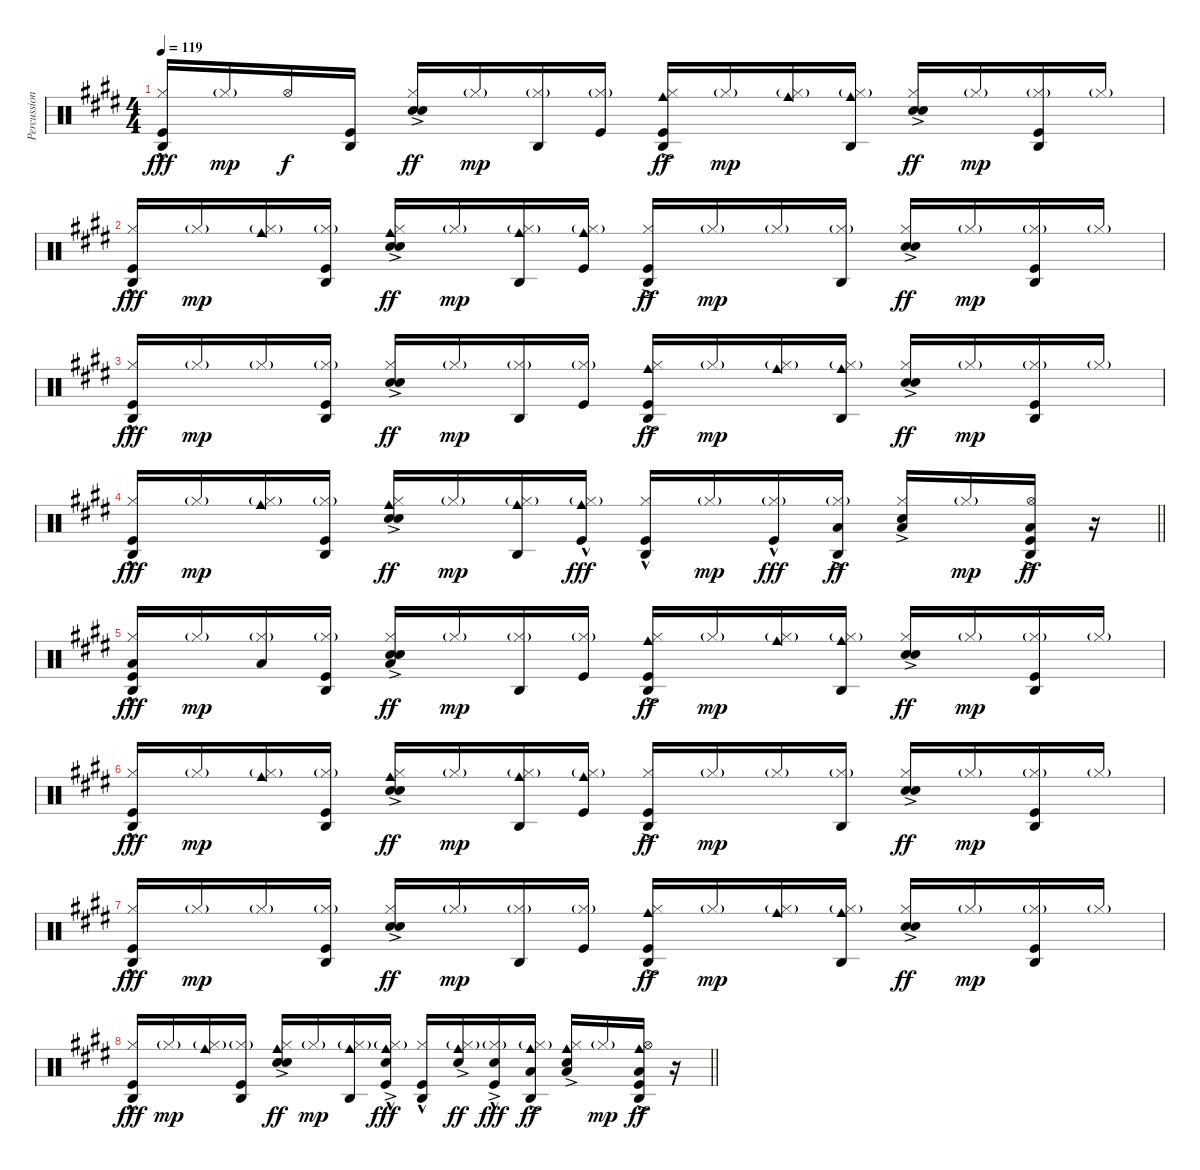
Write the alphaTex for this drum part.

\track ("Percussion" "Percussion") {instrument percussion}
\staff {score}
\articulation defaults
\ts (4 4)
\tempo 119
\clef neutral
\ks e
("Agogo high (hit)" "Hi-Hat (closed)" "Kick (hit)"{hac}).16{dy fff} "Hi-Hat (closed)"{g}.16{dy mp} "Hi-Hat (open)".16{dy f} ("Agogo high (hit)" "Kick (hit)").16 ("Hi-Hat (closed)" "Hand Clap (hit)"{ac} "Snare (hit) 2"{ac}).16{dy ff} "Hi-Hat (closed)"{g}.16{dy mp} ("Agogo high (hit)" "Hi-Hat (closed)"{g}).16 ("Hi-Hat (closed)"{g} "Kick (hit)").16 ("Agogo high (hit)" "Cowbell medium (hit)" "Hi-Hat (closed)" "Kick (hit)"{ac}).16{dy ff} "Hi-Hat (closed)"{g}.16{dy mp} ("Cowbell medium (hit)" "Hi-Hat (closed)"{g}).16 ("Agogo high (hit)" "Cowbell medium (hit)" "Hi-Hat (closed)"{g}).16 ("Hi-Hat (closed)" "Hand Clap (hit)"{ac} "Snare (hit) 2"{ac}).16{dy ff} "Hi-Hat (closed)"{g}.16{dy mp} ("Agogo high (hit)" "Hi-Hat (closed)"{g} "Kick (hit)").16 "Hi-Hat (closed)"{g}.16 |
("Agogo high (hit)" "Hi-Hat (closed)" "Kick (hit)"{hac}).16{dy fff} "Hi-Hat (closed)"{g}.16{dy mp} ("Cowbell medium (hit)" "Hi-Hat (closed)"{g}).16 ("Agogo high (hit)" "Hi-Hat (closed)"{g} "Kick (hit)").16 ("Cowbell medium (hit)" "Hi-Hat (closed)" "Hand Clap (hit)"{ac} "Snare (hit) 2"{ac}).16{dy ff} "Hi-Hat (closed)"{g}.16{dy mp} ("Agogo high (hit)" "Cowbell medium (hit)" "Hi-Hat (closed)"{g}).16 ("Cowbell medium (hit)" "Hi-Hat (closed)"{g} "Kick (hit)").16 ("Agogo high (hit)" "Hi-Hat (closed)" "Kick (hit)"{ac}).16{dy ff} "Hi-Hat (closed)"{g}.16{dy mp} "Hi-Hat (closed)"{g}.16 ("Agogo high (hit)" "Hi-Hat (closed)"{g}).16 ("Hi-Hat (closed)" "Hand Clap (hit)"{ac} "Snare (hit) 2"{ac}).16{dy ff} "Hi-Hat (closed)"{g}.16{dy mp} ("Agogo high (hit)" "Hi-Hat (closed)"{g} "Kick (hit)").16 "Hi-Hat (closed)"{g}.16 |
("Agogo high (hit)" "Hi-Hat (closed)" "Kick (hit)"{hac}).16{dy fff} "Hi-Hat (closed)"{g}.16{dy mp} "Hi-Hat (closed)"{g}.16 ("Agogo high (hit)" "Hi-Hat (closed)"{g} "Kick (hit)").16 ("Hi-Hat (closed)" "Hand Clap (hit)"{ac} "Snare (hit) 2"{ac}).16{dy ff} "Hi-Hat (closed)"{g}.16{dy mp} ("Agogo high (hit)" "Hi-Hat (closed)"{g}).16 ("Hi-Hat (closed)"{g} "Kick (hit)").16 ("Agogo high (hit)" "Cowbell medium (hit)" "Hi-Hat (closed)" "Kick (hit)"{ac}).16{dy ff} "Hi-Hat (closed)"{g}.16{dy mp} ("Cowbell medium (hit)" "Hi-Hat (closed)"{g}).16 ("Agogo high (hit)" "Cowbell medium (hit)" "Hi-Hat (closed)"{g}).16 ("Hi-Hat (closed)" "Hand Clap (hit)"{ac} "Snare (hit) 2"{ac}).16{dy ff} "Hi-Hat (closed)"{g}.16{dy mp} ("Agogo high (hit)" "Hi-Hat (closed)"{g} "Kick (hit)").16 "Hi-Hat (closed)"{g}.16 |
\barLineRight lightlight
("Agogo high (hit)" "Hi-Hat (closed)" "Kick (hit)"{hac}).16{dy fff} "Hi-Hat (closed)"{g}.16{dy mp} ("Cowbell medium (hit)" "Hi-Hat (closed)"{g}).16 ("Agogo high (hit)" "Hi-Hat (closed)"{g} "Kick (hit)").16 ("Cowbell medium (hit)" "Hi-Hat (closed)" "Hand Clap (hit)"{ac} "Snare (hit) 2"{ac}).16{dy ff} "Hi-Hat (closed)"{g}.16{dy mp} ("Agogo high (hit)" "Cowbell medium (hit)" "Hi-Hat (closed)"{g}).16 ("Cowbell medium (hit)" "Hi-Hat (closed)"{g} "Kick (hit)"{hac}).16{dy fff} ("Agogo high (hit)" "Hi-Hat (closed)" "Kick (hit)"{hac}).16 "Hi-Hat (closed)"{g}.16{dy mp} ("Hi-Hat (closed)"{g} "Kick (hit)"{hac}).16{dy fff} ("Agogo high (hit)" "Hi-Hat (closed)"{g} "Low Tom (hit)"{ac}).16{dy ff} ("Hi-Hat (closed)" "Hand Clap (hit)"{ac} "Low Tom (hit)"{ac}).16 "Hi-Hat (closed)"{g}.16{dy mp} ("Agogo high (hit)" "Hi-Hat (open)" "Low Tom (hit)"{ac} "Kick (hit)").16{dy ff} r.16 |
("Agogo high (hit)" "Hi-Hat (closed)" "Low Tom (hit)" "Kick (hit)"{hac}).16{dy fff} "Hi-Hat (closed)"{g}.16{dy mp} ("Hi-Hat (closed)"{g} "Low Tom (hit)").16 ("Agogo high (hit)" "Hi-Hat (closed)"{g} "Kick (hit)").16 ("Hi-Hat (closed)" "Hand Clap (hit)"{ac} "Snare (hit) 2"{ac} "Low Tom (hit)").16{dy ff} "Hi-Hat (closed)"{g}.16{dy mp} ("Agogo high (hit)" "Hi-Hat (closed)"{g}).16 ("Hi-Hat (closed)"{g} "Kick (hit)").16 ("Agogo high (hit)" "Cowbell medium (hit)" "Hi-Hat (closed)" "Kick (hit)"{ac}).16{dy ff} "Hi-Hat (closed)"{g}.16{dy mp} ("Cowbell medium (hit)" "Hi-Hat (closed)"{g}).16 ("Agogo high (hit)" "Cowbell medium (hit)" "Hi-Hat (closed)"{g}).16 ("Hi-Hat (closed)" "Hand Clap (hit)"{ac} "Snare (hit) 2"{ac}).16{dy ff} "Hi-Hat (closed)"{g}.16{dy mp} ("Agogo high (hit)" "Hi-Hat (closed)"{g} "Kick (hit)").16 "Hi-Hat (closed)"{g}.16 |
("Agogo high (hit)" "Hi-Hat (closed)" "Kick (hit)"{hac}).16{dy fff} "Hi-Hat (closed)"{g}.16{dy mp} ("Cowbell medium (hit)" "Hi-Hat (closed)"{g}).16 ("Agogo high (hit)" "Hi-Hat (closed)"{g} "Kick (hit)").16 ("Cowbell medium (hit)" "Hi-Hat (closed)" "Hand Clap (hit)"{ac} "Snare (hit) 2"{ac}).16{dy ff} "Hi-Hat (closed)"{g}.16{dy mp} ("Agogo high (hit)" "Cowbell medium (hit)" "Hi-Hat (closed)"{g}).16 ("Cowbell medium (hit)" "Hi-Hat (closed)"{g} "Kick (hit)").16 ("Agogo high (hit)" "Hi-Hat (closed)" "Kick (hit)"{ac}).16{dy ff} "Hi-Hat (closed)"{g}.16{dy mp} "Hi-Hat (closed)"{g}.16 ("Agogo high (hit)" "Hi-Hat (closed)"{g}).16 ("Hi-Hat (closed)" "Hand Clap (hit)"{ac} "Snare (hit) 2"{ac}).16{dy ff} "Hi-Hat (closed)"{g}.16{dy mp} ("Agogo high (hit)" "Hi-Hat (closed)"{g} "Kick (hit)").16 "Hi-Hat (closed)"{g}.16 |
("Agogo high (hit)" "Hi-Hat (closed)" "Kick (hit)"{hac}).16{dy fff} "Hi-Hat (closed)"{g}.16{dy mp} "Hi-Hat (closed)"{g}.16 ("Agogo high (hit)" "Hi-Hat (closed)"{g} "Kick (hit)").16 ("Hi-Hat (closed)" "Hand Clap (hit)"{ac} "Snare (hit) 2"{ac}).16{dy ff} "Hi-Hat (closed)"{g}.16{dy mp} ("Agogo high (hit)" "Hi-Hat (closed)"{g}).16 ("Hi-Hat (closed)"{g} "Kick (hit)").16 ("Agogo high (hit)" "Cowbell medium (hit)" "Hi-Hat (closed)" "Kick (hit)"{ac}).16{dy ff} "Hi-Hat (closed)"{g}.16{dy mp} ("Cowbell medium (hit)" "Hi-Hat (closed)"{g}).16 ("Agogo high (hit)" "Cowbell medium (hit)" "Hi-Hat (closed)"{g}).16 ("Hi-Hat (closed)" "Hand Clap (hit)"{ac} "Snare (hit) 2"{ac}).16{dy ff} "Hi-Hat (closed)"{g}.16{dy mp} ("Agogo high (hit)" "Hi-Hat (closed)"{g} "Kick (hit)").16 "Hi-Hat (closed)"{g}.16 |
\barLineRight lightlight
("Agogo high (hit)" "Hi-Hat (closed)" "Kick (hit)"{hac}).16{dy fff} "Hi-Hat (closed)"{g}.16{dy mp} ("Cowbell medium (hit)" "Hi-Hat (closed)"{g}).16 ("Agogo high (hit)" "Hi-Hat (closed)"{g} "Kick (hit)").16 ("Cowbell medium (hit)" "Hi-Hat (closed)" "Hand Clap (hit)"{ac} "Snare (hit) 2"{ac}).16{dy ff} "Hi-Hat (closed)"{g}.16{dy mp} ("Agogo high (hit)" "Cowbell medium (hit)" "Hi-Hat (closed)"{g}).16 ("Cowbell medium (hit)" "Hi-Hat (closed)"{g} "Hand Clap (hit)"{ac} "Kick (hit)"{hac}).16{dy fff} ("Agogo high (hit)" "Hi-Hat (closed)" "Kick (hit)"{hac}).16 ("Cowbell medium (hit)" "Hi-Hat (closed)"{g} "Hand Clap (hit)"{ac}).16{dy ff} ("Hi-Hat (closed)"{g} "Hand Clap (hit)"{ac} "Kick (hit)"{hac}).16{dy fff} ("Agogo high (hit)" "Cowbell medium (hit)" "Hi-Hat (closed)"{g} "Low Tom (hit)"{ac}).16{dy ff} ("Cowbell medium (hit)" "Hi-Hat (closed)" "Hand Clap (hit)"{ac} "Low Tom (hit)"{ac}).16 "Hi-Hat (closed)"{g}.16{dy mp} ("Agogo high (hit)" "Cowbell medium (hit)" "Hi-Hat (open)" "Low Tom (hit)"{ac} "Kick (hit)").16{dy ff} r.16
